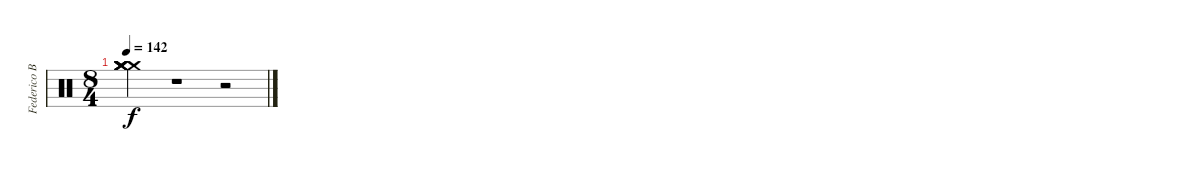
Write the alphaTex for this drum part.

\track ("Federico Bogliaccino-Drums" "Federico B") {instrument percussion}
\staff {score}
\articulation defaults
\ts (8 4)
\tempo 142
\clef neutral
\ks c
("Crash medium (hit)" "Crash medium (hit)" "Crash medium (hit)" "Crash medium (hit)" "Crash medium (hit)" "Crash medium (hit)").2{dy f} r.1 r.2
